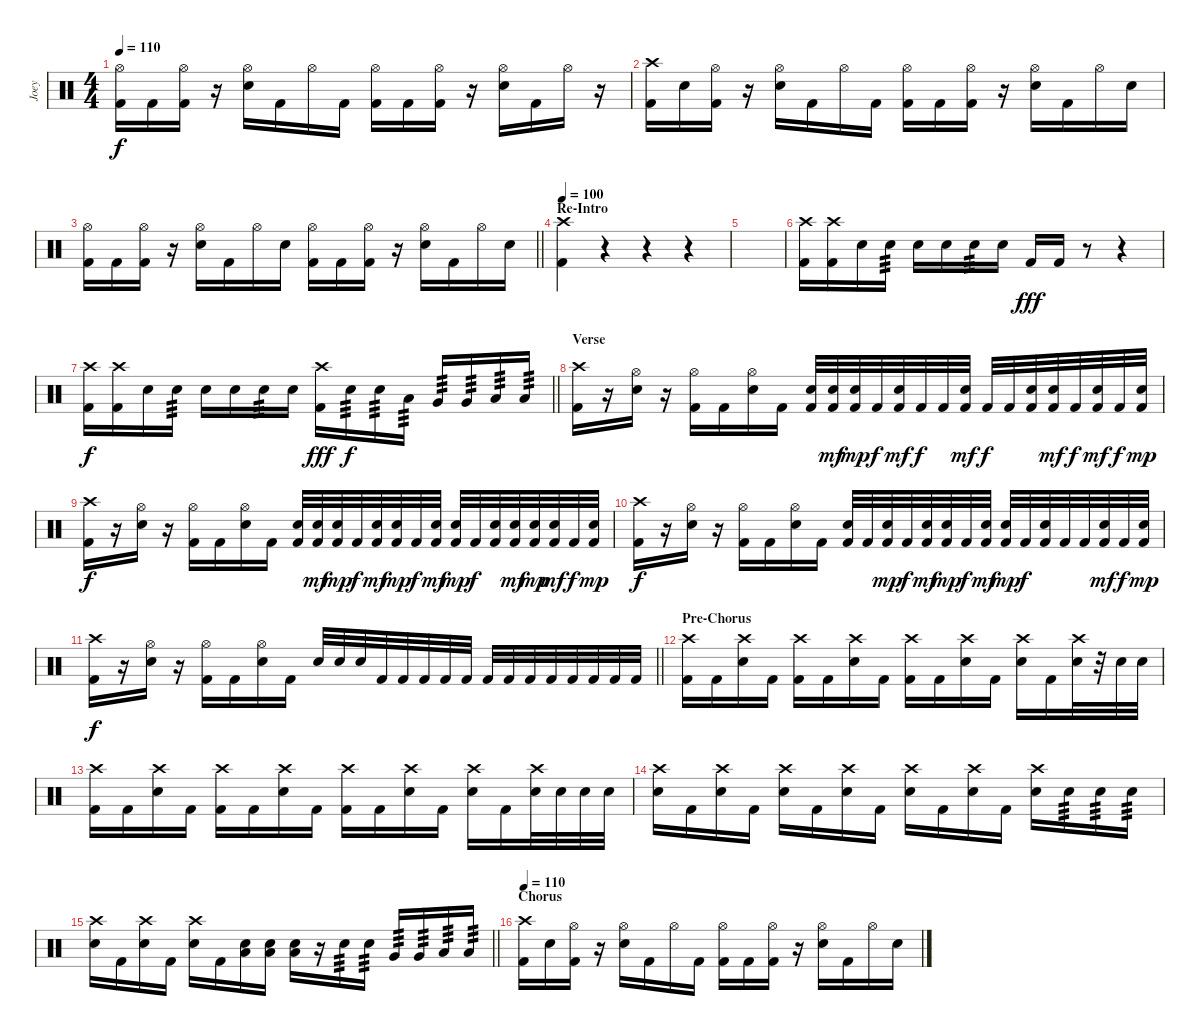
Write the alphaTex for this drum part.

\track ("Joey" "Joey") {instrument percussion}
\staff {score}
\articulation defaults
\ts (4 4)
\tempo 110
\clef neutral
\ks c
("Hi-Hat (open)" "Kick (hit) 2").16{dy f} "Kick (hit) 2".16 ("Hi-Hat (open)" "Kick (hit) 2").16 r.16 ("Hi-Hat (open)" "Electric Snare (hit)").16 "Kick (hit) 2".16 "Hi-Hat (open)".16 "Kick (hit) 2".16 ("Hi-Hat (open)" "Kick (hit) 2").16 "Kick (hit) 2".16 ("Hi-Hat (open)" "Kick (hit) 2").16 r.16 ("Hi-Hat (open)" "Electric Snare (hit)").16 "Kick (hit) 2".16 "Hi-Hat (open)".16 r.16 |
("Crash high (hit)" "Kick (hit) 2").16 "Electric Snare (hit)".16 ("Hi-Hat (open)" "Kick (hit) 2").16 r.16 ("Hi-Hat (open)" "Electric Snare (hit)").16 "Kick (hit) 2".16 "Hi-Hat (open)".16 "Kick (hit) 2".16 ("Hi-Hat (open)" "Kick (hit) 2").16 "Kick (hit) 2".16 ("Hi-Hat (open)" "Kick (hit) 2").16 r.16 ("Hi-Hat (open)" "Electric Snare (hit)").16 "Kick (hit) 2".16 "Hi-Hat (open)".16 "Electric Snare (hit)".16 |
\barLineRight lightlight
("Hi-Hat (open)" "Kick (hit) 2").16 "Kick (hit) 2".16 ("Hi-Hat (open)" "Kick (hit) 2").16 r.16 ("Hi-Hat (open)" "Electric Snare (hit)").16 "Kick (hit) 2".16 "Hi-Hat (open)".16 "Electric Snare (hit)".16 ("Hi-Hat (open)" "Kick (hit) 2").16 "Kick (hit) 2".16 ("Hi-Hat (open)" "Kick (hit) 2").16 r.16 ("Hi-Hat (open)" "Electric Snare (hit)").16 "Kick (hit) 2".16 "Hi-Hat (open)".16 "Electric Snare (hit)".16 |
\section ("" "Re-Intro")
\tempo 100
("Crash high (hit)" "Kick (hit) 2").4 r.4 r.4 r.4 |
|
("Crash high (hit)" "Kick (hit) 2").16 ("Crash high (hit)" "Kick (hit) 2").16 "Electric Snare (hit)".16 "Electric Snare (hit)".16{tp 3} "Electric Snare (hit)".16 "Electric Snare (hit)".16 "Electric Snare (hit)".16{tp 3} "Electric Snare (hit)".16 "Kick (hit) 2".16{dy fff} "Kick (hit) 2".16 r.8 r.4 |
\barLineRight lightlight
("Crash high (hit)" "Kick (hit) 2").16{dy f} ("Crash high (hit)" "Kick (hit) 2").16 "Electric Snare (hit)".16 "Electric Snare (hit)".16{tp 3} "Electric Snare (hit)".16 "Electric Snare (hit)".16 "Electric Snare (hit)".16{tp 3} "Electric Snare (hit)".16 ("Crash high (hit)" "Kick (hit) 2").16{dy fff} "Electric Snare (hit)".16{tp 3 dy f} "Electric Snare (hit)".16{tp 3} "Low Tom (hit)".16{tp 3} "Very Low Tom (hit)".16{tp 3} "Very Low Tom (hit)".16{tp 3} "Low Floor Tom (hit)".16{tp 3} "Low Floor Tom (hit)".16{tp 3} |
\section ("" "Verse")
("Crash high (hit)" "Kick (hit) 2").16 r.16 ("Hi-Hat (open)" "Electric Snare (hit)").16 r.16 ("Hi-Hat (open)" "Kick (hit) 2").16 "Kick (hit) 2".16 ("Hi-Hat (open)" "Electric Snare (hit)").16 "Kick (hit) 2".16 ("Electric Snare (hit)" "Kick (hit) 2").32 ("Electric Snare (hit)" "Kick (hit) 2").32{dy mf} ("Electric Snare (hit)" "Kick (hit) 2").32{dy mp} "Kick (hit) 2".32{dy f} ("Electric Snare (hit)" "Kick (hit) 2").32{dy mf} "Kick (hit) 2".32{dy f} "Kick (hit) 2".32 ("Electric Snare (hit)" "Kick (hit) 2").32{dy mf} "Kick (hit) 2".32{dy f} "Kick (hit) 2".32 ("Electric Snare (hit)" "Kick (hit) 2").32 ("Electric Snare (hit)" "Kick (hit) 2").32{dy mf} "Kick (hit) 2".32{dy f} ("Electric Snare (hit)" "Kick (hit) 2").32{dy mf} "Kick (hit) 2".32{dy f} ("Electric Snare (hit)" "Kick (hit) 2").32{dy mp} |
("Crash high (hit)" "Kick (hit) 2").16{dy f} r.16 ("Hi-Hat (open)" "Electric Snare (hit)").16 r.16 ("Hi-Hat (open)" "Kick (hit) 2").16 "Kick (hit) 2".16 ("Hi-Hat (open)" "Electric Snare (hit)").16 "Kick (hit) 2".16 ("Electric Snare (hit)" "Kick (hit) 2").32 ("Electric Snare (hit)" "Kick (hit) 2").32{dy mf} ("Electric Snare (hit)" "Kick (hit) 2").32{dy mp} "Kick (hit) 2".32{dy f} ("Electric Snare (hit)" "Kick (hit) 2").32{dy mf} ("Electric Snare (hit)" "Kick (hit) 2").32{dy mp} "Kick (hit) 2".32{dy f} ("Electric Snare (hit)" "Kick (hit) 2").32{dy mf} ("Electric Snare (hit)" "Kick (hit) 2").32{dy mp} "Kick (hit) 2".32{dy f} ("Electric Snare (hit)" "Kick (hit) 2").32 ("Electric Snare (hit)" "Kick (hit) 2").32{dy mf} ("Electric Snare (hit)" "Kick (hit) 2").32{dy mp} ("Electric Snare (hit)" "Kick (hit) 2").32{dy mf} "Kick (hit) 2".32{dy f} ("Electric Snare (hit)" "Kick (hit) 2").32{dy mp} |
("Crash high (hit)" "Kick (hit) 2").16{dy f} r.16 ("Hi-Hat (open)" "Electric Snare (hit)").16 r.16 ("Hi-Hat (open)" "Kick (hit) 2").16 "Kick (hit) 2".16 ("Hi-Hat (open)" "Electric Snare (hit)").16 "Kick (hit) 2".16 ("Electric Snare (hit)" "Kick (hit) 2").32 "Kick (hit) 2".32 ("Electric Snare (hit)" "Kick (hit) 2").32{dy mp} "Kick (hit) 2".32{dy f} ("Electric Snare (hit)" "Kick (hit) 2").32{dy mf} ("Electric Snare (hit)" "Kick (hit) 2").32{dy mp} "Kick (hit) 2".32{dy f} ("Electric Snare (hit)" "Kick (hit) 2").32{dy mf} ("Electric Snare (hit)" "Kick (hit) 2").32{dy mp} "Kick (hit) 2".32{dy f} ("Electric Snare (hit)" "Kick (hit) 2").32 "Kick (hit) 2".32 "Kick (hit) 2".32 ("Electric Snare (hit)" "Kick (hit) 2").32{dy mf} "Kick (hit) 2".32{dy f} ("Electric Snare (hit)" "Kick (hit) 2").32{dy mp} |
\barLineRight lightlight
("Crash high (hit)" "Kick (hit) 2").16{dy f} r.16 ("Hi-Hat (open)" "Electric Snare (hit)").16 r.16 ("Hi-Hat (open)" "Kick (hit) 2").16 "Kick (hit) 2".16 ("Hi-Hat (open)" "Electric Snare (hit)").16 "Kick (hit) 2".16 "Electric Snare (hit)".32 "Electric Snare (hit)".32 "Electric Snare (hit)".32 "Kick (hit) 2".32 "Kick (hit) 2".32 "Kick (hit) 2".32 "Kick (hit) 2".32 "Kick (hit) 2".32 "Kick (hit) 2".32 "Kick (hit) 2".32 "Kick (hit) 2".32 "Kick (hit) 2".32 "Kick (hit) 2".32 "Kick (hit) 2".32 "Kick (hit) 2".32 "Kick (hit) 2".32 |
\section ("" "Pre-Chorus")
("Crash high (hit)" "Kick (hit) 2").16 "Kick (hit) 2".16 ("Crash high (hit)" "Electric Snare (hit)").16 "Kick (hit) 2".16 ("Crash high (hit)" "Kick (hit) 2").16 "Kick (hit) 2".16 ("Crash high (hit)" "Electric Snare (hit)").16 "Kick (hit) 2".16 ("Crash high (hit)" "Kick (hit) 2").16 "Kick (hit) 2".16 ("Crash high (hit)" "Electric Snare (hit)").16 "Kick (hit) 2".16 ("Crash high (hit)" "Electric Snare (hit)").16 "Kick (hit) 2".16 ("Crash high (hit)" "Electric Snare (hit)").32 r.32 "Electric Snare (hit)".32 "Electric Snare (hit)".32 |
("Crash high (hit)" "Kick (hit) 2").16 "Kick (hit) 2".16 ("Crash high (hit)" "Electric Snare (hit)").16 "Kick (hit) 2".16 ("Crash high (hit)" "Kick (hit) 2").16 "Kick (hit) 2".16 ("Crash high (hit)" "Electric Snare (hit)").16 "Kick (hit) 2".16 ("Crash high (hit)" "Kick (hit) 2").16 "Kick (hit) 2".16 ("Crash high (hit)" "Electric Snare (hit)").16 "Kick (hit) 2".16 ("Crash high (hit)" "Electric Snare (hit)").16 "Kick (hit) 2".16 ("Crash high (hit)" "Electric Snare (hit)").32 "Electric Snare (hit)".32 "Electric Snare (hit)".32 "Electric Snare (hit)".32 |
("Crash high (hit)" "Electric Snare (hit)").16 "Kick (hit) 2".16 ("Crash high (hit)" "Electric Snare (hit)").16 "Kick (hit) 2".16 ("Crash high (hit)" "Electric Snare (hit)").16 "Kick (hit) 2".16 ("Crash high (hit)" "Electric Snare (hit)").16 "Kick (hit) 2".16 ("Crash high (hit)" "Electric Snare (hit)").16 "Kick (hit) 2".16 ("Crash high (hit)" "Electric Snare (hit)").16 "Kick (hit) 2".16 ("Crash high (hit)" "Electric Snare (hit)").16 "Electric Snare (hit)".16{tp 3} "Electric Snare (hit)".16{tp 3} "Electric Snare (hit)".16{tp 3} |
\barLineRight lightlight
("Crash high (hit)" "Electric Snare (hit)").16 "Kick (hit) 2".16 ("Crash high (hit)" "Electric Snare (hit)").16 "Kick (hit) 2".16 ("Crash high (hit)" "Electric Snare (hit)").16 "Kick (hit) 2".16 ("Low Floor Tom (hit)" "Electric Snare (hit)").16 ("Low Floor Tom (hit)" "Electric Snare (hit)").16 ("Low Floor Tom (hit)" "Electric Snare (hit)").16 r.16 "Electric Snare (hit)".16{tp 3} "Electric Snare (hit)".16{tp 3} "Very Low Tom (hit)".16{tp 3} "Very Low Tom (hit)".16{tp 3} "Low Floor Tom (hit)".16{tp 3} "Low Floor Tom (hit)".16{tp 3} |
\section ("" "Chorus")
\tempo 110
("Crash high (hit)" "Kick (hit) 2").16 "Electric Snare (hit)".16 ("Hi-Hat (open)" "Kick (hit) 2").16 r.16 ("Hi-Hat (open)" "Electric Snare (hit)").16 "Kick (hit) 2".16 "Hi-Hat (open)".16 "Kick (hit) 2".16 ("Hi-Hat (open)" "Kick (hit) 2").16 "Kick (hit) 2".16 ("Hi-Hat (open)" "Kick (hit) 2").16 r.16 ("Hi-Hat (open)" "Electric Snare (hit)").16 "Kick (hit) 2".16 "Hi-Hat (open)".16 "Electric Snare (hit)".16
